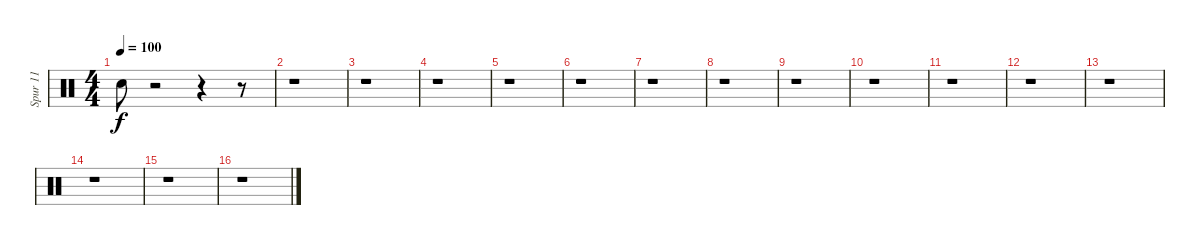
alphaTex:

\track ("Spur 11" "Spur 11") {instrument percussion}
\staff {score}
\articulation defaults
\ts (4 4)
\tempo 100
\clef neutral
\ks c "Snare (hit)"{t}.8{dy f}
r.2 r.4 r.8 |
r.1 |
r.1 |
r.1 |
r.1 |
r.1 |
r.1 |
r.1 |
r.1 |
r.1 |
r.1 |
r.1 |
r.1 |
r.1 |
r.1 |
r.1
